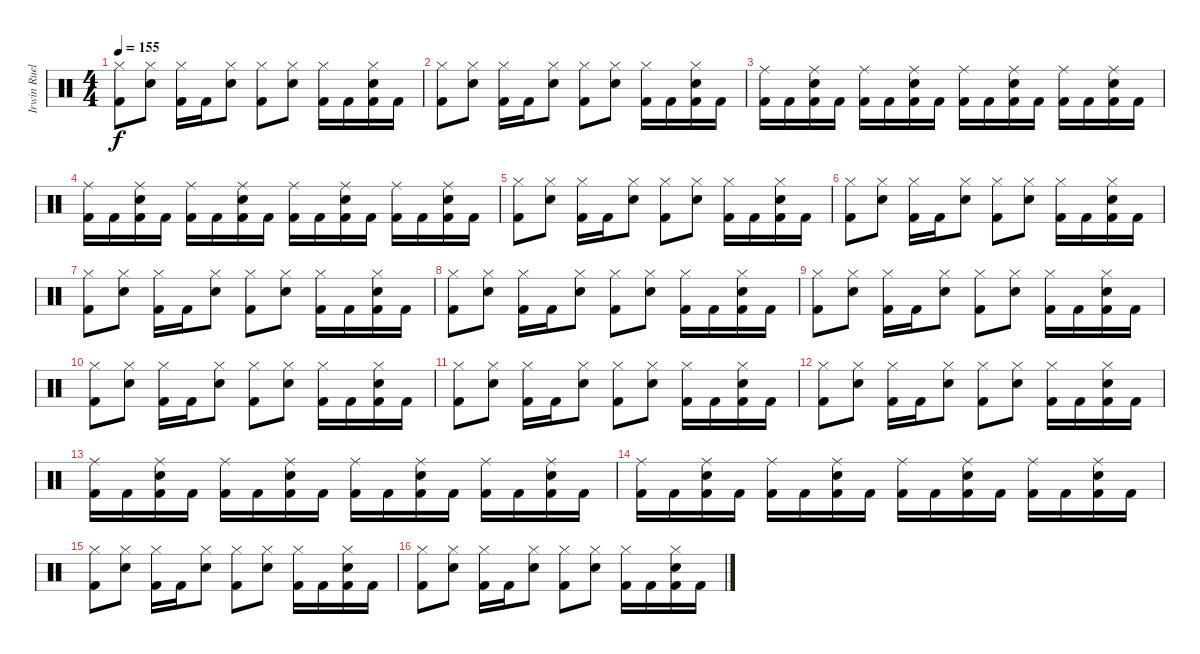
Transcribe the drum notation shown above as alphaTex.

\track ("Irwin Ruelas" "Irwin Ruel") {instrument percussion}
\staff {score}
\articulation defaults
\ts (4 4)
\tempo 155
\clef neutral
\ks c
("Hi-Hat (closed)" "Kick (hit) 2").8{dy f} ("Hi-Hat (closed)" "Electric Snare (hit)").8 ("Hi-Hat (closed)" "Kick (hit) 2").16 "Kick (hit) 2".16 ("Hi-Hat (closed)" "Electric Snare (hit)").8 ("Hi-Hat (closed)" "Kick (hit) 2").8 ("Hi-Hat (closed)" "Electric Snare (hit)").8 ("Hi-Hat (closed)" "Kick (hit) 2").16 "Kick (hit) 2".16 ("Hi-Hat (closed)" "Electric Snare (hit)" "Kick (hit) 2").16 "Kick (hit) 2".16 |
("Hi-Hat (closed)" "Kick (hit) 2").8 ("Hi-Hat (closed)" "Electric Snare (hit)").8 ("Hi-Hat (closed)" "Kick (hit) 2").16 "Kick (hit) 2".16 ("Hi-Hat (closed)" "Electric Snare (hit)").8 ("Hi-Hat (closed)" "Kick (hit) 2").8 ("Hi-Hat (closed)" "Electric Snare (hit)").8 ("Hi-Hat (closed)" "Kick (hit) 2").16 "Kick (hit) 2".16 ("Hi-Hat (closed)" "Electric Snare (hit)" "Kick (hit) 2").16 "Kick (hit) 2".16 |
("Ride (middle)" "Kick (hit) 2").16 "Kick (hit) 2".16 ("Ride (middle)" "Electric Snare (hit)" "Kick (hit) 2").16 "Kick (hit) 2".16 ("Ride (middle)" "Kick (hit) 2").16 "Kick (hit) 2".16 ("Ride (middle)" "Electric Snare (hit)" "Kick (hit) 2").16 "Kick (hit) 2".16 ("Ride (middle)" "Kick (hit) 2").16 "Kick (hit) 2".16 ("Ride (middle)" "Electric Snare (hit)" "Kick (hit) 2").16 "Kick (hit) 2".16 ("Ride (middle)" "Kick (hit) 2").16 "Kick (hit) 2".16 ("Ride (middle)" "Electric Snare (hit)" "Kick (hit) 2").16 "Kick (hit) 2".16 |
("Ride (middle)" "Kick (hit) 2").16 "Kick (hit) 2".16 ("Ride (middle)" "Electric Snare (hit)" "Kick (hit) 2").16 "Kick (hit) 2".16 ("Ride (middle)" "Kick (hit) 2").16 "Kick (hit) 2".16 ("Ride (middle)" "Electric Snare (hit)" "Kick (hit) 2").16 "Kick (hit) 2".16 ("Ride (middle)" "Kick (hit) 2").16 "Kick (hit) 2".16 ("Ride (middle)" "Electric Snare (hit)" "Kick (hit) 2").16 "Kick (hit) 2".16 ("Ride (middle)" "Kick (hit) 2").16 "Kick (hit) 2".16 ("Ride (middle)" "Electric Snare (hit)" "Kick (hit) 2").16 "Kick (hit) 2".16 |
("Hi-Hat (closed)" "Kick (hit) 2").8 ("Hi-Hat (closed)" "Electric Snare (hit)").8 ("Hi-Hat (closed)" "Kick (hit) 2").16 "Kick (hit) 2".16 ("Hi-Hat (closed)" "Electric Snare (hit)").8 ("Hi-Hat (closed)" "Kick (hit) 2").8 ("Hi-Hat (closed)" "Electric Snare (hit)").8 ("Hi-Hat (closed)" "Kick (hit) 2").16 "Kick (hit) 2".16 ("Hi-Hat (closed)" "Electric Snare (hit)" "Kick (hit) 2").16 "Kick (hit) 2".16 |
("Hi-Hat (closed)" "Kick (hit) 2").8 ("Hi-Hat (closed)" "Electric Snare (hit)").8 ("Hi-Hat (closed)" "Kick (hit) 2").16 "Kick (hit) 2".16 ("Hi-Hat (closed)" "Electric Snare (hit)").8 ("Hi-Hat (closed)" "Kick (hit) 2").8 ("Hi-Hat (closed)" "Electric Snare (hit)").8 ("Hi-Hat (closed)" "Kick (hit) 2").16 "Kick (hit) 2".16 ("Hi-Hat (closed)" "Electric Snare (hit)" "Kick (hit) 2").16 "Kick (hit) 2".16 |
("Hi-Hat (closed)" "Kick (hit) 2").8 ("Hi-Hat (closed)" "Electric Snare (hit)").8 ("Hi-Hat (closed)" "Kick (hit) 2").16 "Kick (hit) 2".16 ("Hi-Hat (closed)" "Electric Snare (hit)").8 ("Hi-Hat (closed)" "Kick (hit) 2").8 ("Hi-Hat (closed)" "Electric Snare (hit)").8 ("Hi-Hat (closed)" "Kick (hit) 2").16 "Kick (hit) 2".16 ("Hi-Hat (closed)" "Electric Snare (hit)" "Kick (hit) 2").16 "Kick (hit) 2".16 |
("Hi-Hat (closed)" "Kick (hit) 2").8 ("Hi-Hat (closed)" "Electric Snare (hit)").8 ("Hi-Hat (closed)" "Kick (hit) 2").16 "Kick (hit) 2".16 ("Hi-Hat (closed)" "Electric Snare (hit)").8 ("Hi-Hat (closed)" "Kick (hit) 2").8 ("Hi-Hat (closed)" "Electric Snare (hit)").8 ("Hi-Hat (closed)" "Kick (hit) 2").16 "Kick (hit) 2".16 ("Hi-Hat (closed)" "Electric Snare (hit)" "Kick (hit) 2").16 "Kick (hit) 2".16 |
("Hi-Hat (closed)" "Kick (hit) 2").8 ("Hi-Hat (closed)" "Electric Snare (hit)").8 ("Hi-Hat (closed)" "Kick (hit) 2").16 "Kick (hit) 2".16 ("Hi-Hat (closed)" "Electric Snare (hit)").8 ("Hi-Hat (closed)" "Kick (hit) 2").8 ("Hi-Hat (closed)" "Electric Snare (hit)").8 ("Hi-Hat (closed)" "Kick (hit) 2").16 "Kick (hit) 2".16 ("Hi-Hat (closed)" "Electric Snare (hit)" "Kick (hit) 2").16 "Kick (hit) 2".16 |
("Hi-Hat (closed)" "Kick (hit) 2").8 ("Hi-Hat (closed)" "Electric Snare (hit)").8 ("Hi-Hat (closed)" "Kick (hit) 2").16 "Kick (hit) 2".16 ("Hi-Hat (closed)" "Electric Snare (hit)").8 ("Hi-Hat (closed)" "Kick (hit) 2").8 ("Hi-Hat (closed)" "Electric Snare (hit)").8 ("Hi-Hat (closed)" "Kick (hit) 2").16 "Kick (hit) 2".16 ("Hi-Hat (closed)" "Electric Snare (hit)" "Kick (hit) 2").16 "Kick (hit) 2".16 |
("Hi-Hat (closed)" "Kick (hit) 2").8 ("Hi-Hat (closed)" "Electric Snare (hit)").8 ("Hi-Hat (closed)" "Kick (hit) 2").16 "Kick (hit) 2".16 ("Hi-Hat (closed)" "Electric Snare (hit)").8 ("Hi-Hat (closed)" "Kick (hit) 2").8 ("Hi-Hat (closed)" "Electric Snare (hit)").8 ("Hi-Hat (closed)" "Kick (hit) 2").16 "Kick (hit) 2".16 ("Hi-Hat (closed)" "Electric Snare (hit)" "Kick (hit) 2").16 "Kick (hit) 2".16 |
("Hi-Hat (closed)" "Kick (hit) 2").8 ("Hi-Hat (closed)" "Electric Snare (hit)").8 ("Hi-Hat (closed)" "Kick (hit) 2").16 "Kick (hit) 2".16 ("Hi-Hat (closed)" "Electric Snare (hit)").8 ("Hi-Hat (closed)" "Kick (hit) 2").8 ("Hi-Hat (closed)" "Electric Snare (hit)").8 ("Hi-Hat (closed)" "Kick (hit) 2").16 "Kick (hit) 2".16 ("Hi-Hat (closed)" "Electric Snare (hit)" "Kick (hit) 2").16 "Kick (hit) 2".16 |
("Ride (middle)" "Kick (hit) 2").16 "Kick (hit) 2".16 ("Ride (middle)" "Electric Snare (hit)" "Kick (hit) 2").16 "Kick (hit) 2".16 ("Ride (middle)" "Kick (hit) 2").16 "Kick (hit) 2".16 ("Ride (middle)" "Electric Snare (hit)" "Kick (hit) 2").16 "Kick (hit) 2".16 ("Ride (middle)" "Kick (hit) 2").16 "Kick (hit) 2".16 ("Ride (middle)" "Electric Snare (hit)" "Kick (hit) 2").16 "Kick (hit) 2".16 ("Ride (middle)" "Kick (hit) 2").16 "Kick (hit) 2".16 ("Ride (middle)" "Electric Snare (hit)" "Kick (hit) 2").16 "Kick (hit) 2".16 |
("Ride (middle)" "Kick (hit) 2").16 "Kick (hit) 2".16 ("Ride (middle)" "Electric Snare (hit)" "Kick (hit) 2").16 "Kick (hit) 2".16 ("Ride (middle)" "Kick (hit) 2").16 "Kick (hit) 2".16 ("Ride (middle)" "Electric Snare (hit)" "Kick (hit) 2").16 "Kick (hit) 2".16 ("Ride (middle)" "Kick (hit) 2").16 "Kick (hit) 2".16 ("Ride (middle)" "Electric Snare (hit)" "Kick (hit) 2").16 "Kick (hit) 2".16 ("Ride (middle)" "Kick (hit) 2").16 "Kick (hit) 2".16 ("Ride (middle)" "Electric Snare (hit)" "Kick (hit) 2").16 "Kick (hit) 2".16 |
("Hi-Hat (closed)" "Kick (hit) 2").8 ("Hi-Hat (closed)" "Electric Snare (hit)").8 ("Hi-Hat (closed)" "Kick (hit) 2").16 "Kick (hit) 2".16 ("Hi-Hat (closed)" "Electric Snare (hit)").8 ("Hi-Hat (closed)" "Kick (hit) 2").8 ("Hi-Hat (closed)" "Electric Snare (hit)").8 ("Hi-Hat (closed)" "Kick (hit) 2").16 "Kick (hit) 2".16 ("Hi-Hat (closed)" "Electric Snare (hit)" "Kick (hit) 2").16 "Kick (hit) 2".16 |
("Hi-Hat (closed)" "Kick (hit) 2").8 ("Hi-Hat (closed)" "Electric Snare (hit)").8 ("Hi-Hat (closed)" "Kick (hit) 2").16 "Kick (hit) 2".16 ("Hi-Hat (closed)" "Electric Snare (hit)").8 ("Hi-Hat (closed)" "Kick (hit) 2").8 ("Hi-Hat (closed)" "Electric Snare (hit)").8 ("Hi-Hat (closed)" "Kick (hit) 2").16 "Kick (hit) 2".16 ("Hi-Hat (closed)" "Electric Snare (hit)" "Kick (hit) 2").16 "Kick (hit) 2".16
